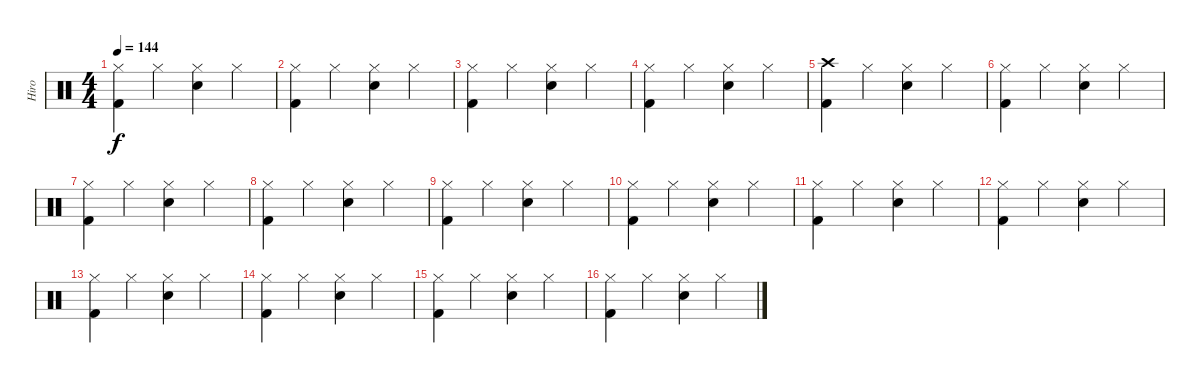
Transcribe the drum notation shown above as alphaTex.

\track ("Hiro" "Hiro") {instrument percussion}
\staff {score}
\articulation defaults
\ts (4 4)
\tempo 144
\clef neutral
\ks c
("Hi-Hat (closed)" "Kick (hit) 2").4{dy f} "Hi-Hat (closed)".4 ("Snare (hit) 2" "Hi-Hat (closed)").4 "Hi-Hat (closed)".4 |
("Hi-Hat (closed)" "Kick (hit) 2").4 "Hi-Hat (closed)".4 ("Hi-Hat (closed)" "Snare (hit) 2").4 "Hi-Hat (closed)".4 |
("Hi-Hat (closed)" "Kick (hit) 2").4 "Hi-Hat (closed)".4 ("Snare (hit) 2" "Hi-Hat (closed)").4 "Hi-Hat (closed)".4 |
("Kick (hit) 2" "Hi-Hat (closed)").4 "Hi-Hat (closed)".4 ("Snare (hit) 2" "Hi-Hat (closed)").4 "Hi-Hat (closed)".4 |
("Kick (hit) 2" "Crash high (hit)").4 "Hi-Hat (closed)".4 ("Snare (hit) 2" "Hi-Hat (closed)").4 "Hi-Hat (closed)".4 |
("Hi-Hat (closed)" "Kick (hit) 2").4 "Hi-Hat (closed)".4 ("Hi-Hat (closed)" "Snare (hit) 2").4 "Hi-Hat (closed)".4 |
("Hi-Hat (closed)" "Kick (hit) 2").4 "Hi-Hat (closed)".4 ("Hi-Hat (closed)" "Snare (hit) 2").4 "Hi-Hat (closed)".4 |
("Hi-Hat (closed)" "Kick (hit) 2").4 "Hi-Hat (closed)".4 ("Hi-Hat (closed)" "Snare (hit) 2").4 "Hi-Hat (closed)".4 |
("Hi-Hat (closed)" "Kick (hit) 2").4 "Hi-Hat (closed)".4 ("Hi-Hat (closed)" "Snare (hit) 2").4 "Hi-Hat (closed)".4 |
("Hi-Hat (closed)" "Kick (hit) 2").4 "Hi-Hat (closed)".4 ("Hi-Hat (closed)" "Snare (hit) 2").4 "Hi-Hat (closed)".4 |
("Hi-Hat (closed)" "Kick (hit) 2").4 "Hi-Hat (closed)".4 ("Hi-Hat (closed)" "Snare (hit) 2").4 "Hi-Hat (closed)".4 |
("Hi-Hat (closed)" "Kick (hit) 2").4 "Hi-Hat (closed)".4 ("Hi-Hat (closed)" "Snare (hit) 2").4 "Hi-Hat (closed)".4 |
("Hi-Hat (closed)" "Kick (hit) 2").4 "Hi-Hat (closed)".4 ("Hi-Hat (closed)" "Snare (hit) 2").4 "Hi-Hat (closed)".4 |
("Kick (hit) 2" "Hi-Hat (closed)").4 "Hi-Hat (closed)".4 ("Snare (hit) 2" "Hi-Hat (closed)").4 "Hi-Hat (closed)".4 |
("Hi-Hat (closed)" "Kick (hit) 2").4 "Hi-Hat (closed)".4 ("Hi-Hat (closed)" "Snare (hit) 2").4 "Hi-Hat (closed)".4 |
("Hi-Hat (closed)" "Kick (hit) 2").4 "Hi-Hat (closed)".4 ("Hi-Hat (closed)" "Snare (hit) 2").4 "Hi-Hat (closed)".4
